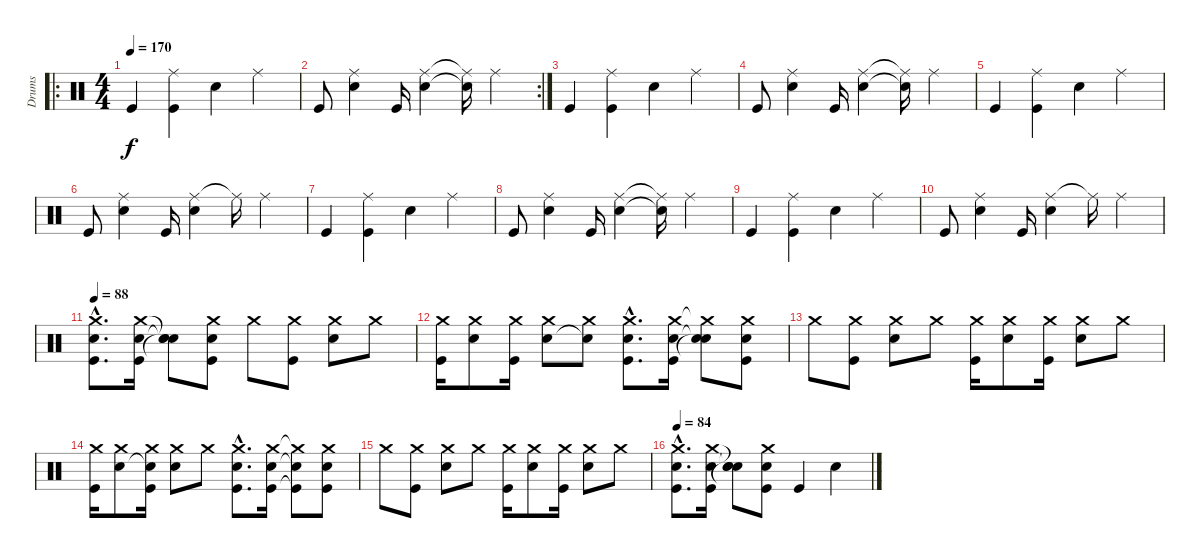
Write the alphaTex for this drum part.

\track ("Drums" "Drums") {instrument percussion}
\staff {score}
\articulation defaults
\ro
\ts (4 4)
\tempo 170
\clef neutral
\ks c "Kick (hit)".4{dy f}
("Ride (middle)" "Kick (hit)").4 "Electric Snare (hit)".4 "Ride (middle)".4 |
\rc 2 "Kick (hit)".8
("Ride (middle)" "Electric Snare (hit)").4 "Kick (hit)".16 ("Ride (middle)" "Electric Snare (hit)").4 ("Ride (middle)"{t} "Snare (hit)"{t}).16 "Ride (middle)".4 |
"Kick (hit)".4 ("Ride (middle)" "Kick (hit)").4 "Electric Snare (hit)".4 "Ride (middle)".4 |
"Kick (hit)".8 ("Ride (middle)" "Electric Snare (hit)").4 "Kick (hit)".16 ("Ride (middle)" "Electric Snare (hit)").4 ("Ride (middle)"{t} "Snare (hit)"{t}).16 "Ride (middle)".4 |
"Kick (hit)".4 ("Ride (middle)" "Kick (hit)").4 "Electric Snare (hit)".4 "Ride (middle)".4 |
"Kick (hit)".8 ("Ride (middle)" "Electric Snare (hit)").4 "Kick (hit)".16 ("Ride (middle)" "Electric Snare (hit)").4 "Ride (middle)"{t}.16 "Ride (middle)".4 |
"Kick (hit)".4 ("Ride (middle)" "Kick (hit)").4 "Electric Snare (hit)".4 "Ride (middle)".4 |
"Kick (hit)".8 ("Ride (middle)" "Electric Snare (hit)").4 "Kick (hit)".16 ("Ride (middle)" "Electric Snare (hit)").4 ("Ride (middle)"{t} "Snare (hit)"{t}).16 "Ride (middle)".4 |
"Kick (hit)".4 ("Ride (middle)" "Kick (hit)").4 "Electric Snare (hit)".4 "Ride (middle)".4 |
"Kick (hit)".8 ("Ride (middle)" "Electric Snare (hit)").4 "Kick (hit)".16 ("Ride (middle)" "Electric Snare (hit)").4 "Ride (middle)"{t}.16 "Ride (middle)".4 |
\tempo 88
("Crash medium (hit)"{hac} "Electric Snare (hit)"{hac} "Kick (hit)"{hac}).8{d} ("Crash medium (hit)" "Electric Snare (hit)" "Kick (hit)").16 ("Snare (hit)"{t} "Snare (hit)"{t} "Snare (hit)"{t}).8 ("Crash medium (hit)" "Electric Snare (hit)" "Kick (hit)").8 "Crash medium (hit)".8 ("Crash medium (hit)" "Kick (hit)").8 ("Crash medium (hit)" "Electric Snare (hit)").8 "Crash medium (hit)".8 |
("Crash medium (hit)" "Kick (hit)").16 ("Crash medium (hit)" "Electric Snare (hit)").8 ("Crash medium (hit)" "Kick (hit)").16 ("Crash medium (hit)" "Electric Snare (hit)").8 ("Crash medium (hit)" "Snare (hit)"{t}).8 ("Crash medium (hit)"{hac} "Electric Snare (hit)"{hac} "Kick (hit)"{hac}).8{d} ("Crash medium (hit)" "Electric Snare (hit)" "Kick (hit)").16 ("Crash medium (hit)"{t} "Snare (hit)"{t} "Snare (hit)"{t}).8 ("Crash medium (hit)" "Electric Snare (hit)" "Kick (hit)").8 |
"Crash medium (hit)".8 ("Crash medium (hit)" "Kick (hit)").8 ("Crash medium (hit)" "Electric Snare (hit)").8 "Crash medium (hit)".8 ("Crash medium (hit)" "Kick (hit)").16 ("Crash medium (hit)" "Electric Snare (hit)").8 ("Crash medium (hit)" "Kick (hit)").16 ("Crash medium (hit)" "Electric Snare (hit)").8 "Crash medium (hit)".8 |
("Crash medium (hit)" "Kick (hit)").16 ("Crash medium (hit)" "Electric Snare (hit)").8 ("Crash medium (hit)" "Snare (hit)"{t} "Kick (hit)").16 ("Crash medium (hit)" "Electric Snare (hit)").8 "Crash medium (hit)".8 ("Crash medium (hit)"{hac} "Electric Snare (hit)"{hac} "Kick (hit)"{hac}).8{d} ("Crash medium (hit)" "Electric Snare (hit)" "Kick (hit)").16 ("Crash medium (hit)"{t} "Snare (hit)"{t} "Kick (hit)"{t}).8 ("Crash medium (hit)" "Electric Snare (hit)" "Kick (hit)").8 |
"Crash medium (hit)".8 ("Crash medium (hit)" "Kick (hit)").8 ("Crash medium (hit)" "Electric Snare (hit)").8 "Crash medium (hit)".8 ("Crash medium (hit)" "Kick (hit)").16 ("Crash medium (hit)" "Electric Snare (hit)").8 ("Crash medium (hit)" "Kick (hit)").16 ("Crash medium (hit)" "Electric Snare (hit)").8 "Crash medium (hit)".8 |
\tempo 84
("Crash medium (hit)"{hac} "Electric Snare (hit)"{hac} "Kick (hit)"{hac}).8{d} ("Crash medium (hit)" "Electric Snare (hit)" "Kick (hit)").16 ("Snare (hit)"{t} "Snare (hit)"{t} "Snare (hit)"{t}).8 ("Crash medium (hit)" "Electric Snare (hit)" "Kick (hit)").8 "Kick (hit)".4 "Electric Snare (hit)".4
